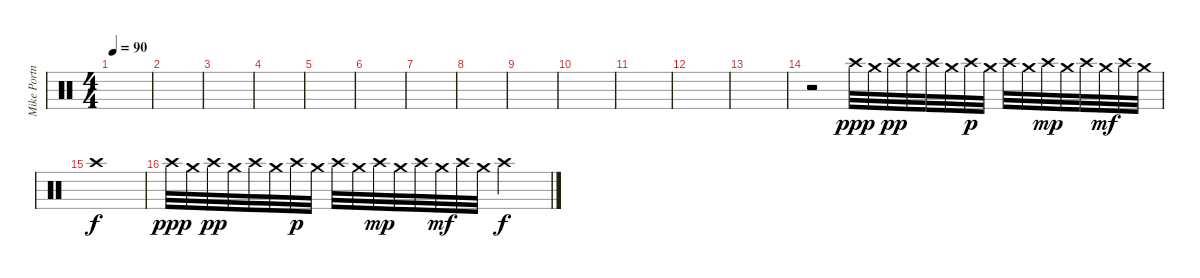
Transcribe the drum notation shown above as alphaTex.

\track ("Mike Portnoy" "Mike Portn") {instrument percussion}
\staff {score}
\articulation defaults
\ts (4 4)
\tempo 90
\clef neutral
\ks c
|
|
|
|
|
|
|
|
|
|
|
|
|
r.2{volume 15} "Crash high (hit)".32{dy ppp} "Crash medium (hit)".32 "Crash high (hit)".32{dy pp} "Crash medium (hit)".32 "Crash high (hit)".32 "Crash medium (hit)".32 "Crash high (hit)".32{dy p} "Crash medium (hit)".32 "Crash high (hit)".32 "Crash medium (hit)".32 "Crash high (hit)".32{dy mp} "Crash medium (hit)".32 "Crash high (hit)".32 "Crash medium (hit)".32{dy mf} "Crash high (hit)".32 "Crash medium (hit)".32 |
"Crash high (hit)".1{dy f} |
"Crash high (hit)".32{dy ppp} "Crash medium (hit)".32 "Crash high (hit)".32{dy pp} "Crash medium (hit)".32 "Crash high (hit)".32 "Crash medium (hit)".32 "Crash high (hit)".32{dy p} "Crash medium (hit)".32 "Crash high (hit)".32 "Crash medium (hit)".32 "Crash high (hit)".32{dy mp} "Crash medium (hit)".32 "Crash high (hit)".32 "Crash medium (hit)".32{dy mf} "Crash high (hit)".32 "Crash medium (hit)".32 "Crash high (hit)".2{dy f}
